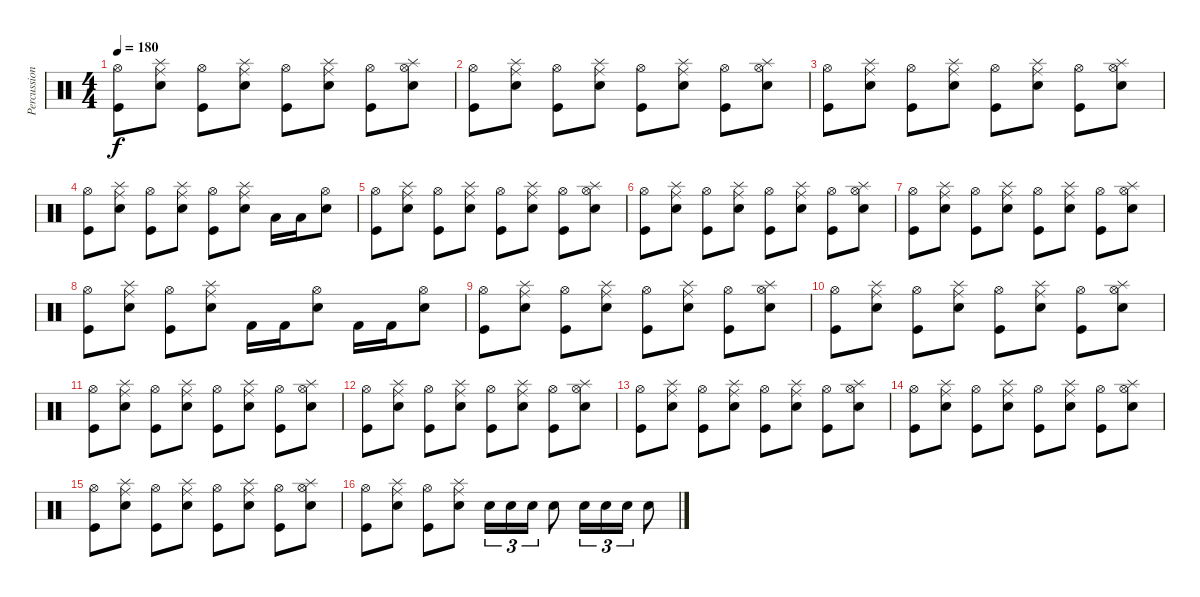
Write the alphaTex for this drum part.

\track ("Percussions" "Percussion") {instrument percussion}
\staff {score}
\articulation defaults
\ts (4 4)
\tempo 180
\clef neutral
\ks c
("Kick (hit)" "Hi-Hat (open)").8{dy f} ("Snare (hit) 2" "Ride (middle)" "Splash (hit)").8 ("Kick (hit)" "Hi-Hat (open)").8 ("Snare (hit) 2" "Ride (middle)" "Splash (hit)").8 ("Kick (hit)" "Hi-Hat (open)").8 ("Snare (hit) 2" "Ride (middle)" "Splash (hit)").8 ("Kick (hit)" "Hi-Hat (open)").8 ("Snare (hit) 2" "Hi-Hat (open)" "Splash (hit)").8 |
("Kick (hit)" "Hi-Hat (open)").8 ("Snare (hit) 2" "Ride (middle)" "Splash (hit)").8 ("Kick (hit)" "Hi-Hat (open)").8 ("Snare (hit) 2" "Ride (middle)" "Splash (hit)").8 ("Kick (hit)" "Hi-Hat (open)").8 ("Snare (hit) 2" "Ride (middle)" "Splash (hit)").8 ("Kick (hit)" "Hi-Hat (open)").8 ("Snare (hit) 2" "Hi-Hat (open)" "Splash (hit)").8 |
("Kick (hit)" "Hi-Hat (open)").8 ("Snare (hit) 2" "Ride (middle)" "Splash (hit)").8 ("Kick (hit)" "Hi-Hat (open)").8 ("Snare (hit) 2" "Ride (middle)" "Splash (hit)").8 ("Kick (hit)" "Hi-Hat (open)").8 ("Snare (hit) 2" "Ride (middle)" "Splash (hit)").8 ("Kick (hit)" "Hi-Hat (open)").8 ("Snare (hit) 2" "Hi-Hat (open)" "Splash (hit)").8 |
("Kick (hit)" "Hi-Hat (open)").8 ("Snare (hit) 2" "Ride (middle)" "Splash (hit)").8 ("Kick (hit)" "Hi-Hat (open)").8 ("Snare (hit) 2" "Ride (middle)" "Splash (hit)").8 ("Kick (hit)" "Hi-Hat (open)").8 ("Snare (hit) 2" "Ride (middle)" "Splash (hit)").8 "Low Tom (hit)".16 "Low Tom (hit)".16 ("Hi-Hat (open)" "Electric Snare (hit)").8 |
("Kick (hit)" "Hi-Hat (open)").8 ("Snare (hit) 2" "Ride (middle)" "Splash (hit)").8 ("Kick (hit)" "Hi-Hat (open)").8 ("Snare (hit) 2" "Ride (middle)" "Splash (hit)").8 ("Kick (hit)" "Hi-Hat (open)").8 ("Snare (hit) 2" "Ride (middle)" "Splash (hit)").8 ("Kick (hit)" "Hi-Hat (open)").8 ("Snare (hit) 2" "Hi-Hat (open)" "Splash (hit)").8 |
("Kick (hit)" "Hi-Hat (open)").8 ("Snare (hit) 2" "Ride (middle)" "Splash (hit)").8 ("Kick (hit)" "Hi-Hat (open)").8 ("Snare (hit) 2" "Ride (middle)" "Splash (hit)").8 ("Kick (hit)" "Hi-Hat (open)").8 ("Snare (hit) 2" "Ride (middle)" "Splash (hit)").8 ("Kick (hit)" "Hi-Hat (open)").8 ("Snare (hit) 2" "Hi-Hat (open)" "Splash (hit)").8 |
("Kick (hit)" "Hi-Hat (open)").8 ("Snare (hit) 2" "Ride (middle)" "Splash (hit)").8 ("Kick (hit)" "Hi-Hat (open)").8 ("Snare (hit) 2" "Ride (middle)" "Splash (hit)").8 ("Kick (hit)" "Hi-Hat (open)").8 ("Snare (hit) 2" "Ride (middle)" "Splash (hit)").8 ("Kick (hit)" "Hi-Hat (open)").8 ("Snare (hit) 2" "Hi-Hat (open)" "Splash (hit)").8 |
("Kick (hit)" "Hi-Hat (open)").8 ("Snare (hit) 2" "Ride (middle)" "Splash (hit)").8 ("Kick (hit)" "Hi-Hat (open)").8 ("Snare (hit) 2" "Ride (middle)" "Splash (hit)").8 "Kick (hit) 2".16 "Kick (hit) 2".16 ("Hi-Hat (open)" "Electric Snare (hit)").8 "Kick (hit) 2".16 "Kick (hit) 2".16 ("Hi-Hat (open)" "Electric Snare (hit)").8 |
("Kick (hit)" "Hi-Hat (open)").8 ("Snare (hit) 2" "Ride (middle)" "Splash (hit)").8 ("Kick (hit)" "Hi-Hat (open)").8 ("Snare (hit) 2" "Ride (middle)" "Splash (hit)").8 ("Kick (hit)" "Hi-Hat (open)").8 ("Snare (hit) 2" "Ride (middle)" "Splash (hit)").8 ("Kick (hit)" "Hi-Hat (open)").8 ("Snare (hit) 2" "Hi-Hat (open)" "Splash (hit)").8 |
("Kick (hit)" "Hi-Hat (open)").8 ("Snare (hit) 2" "Ride (middle)" "Splash (hit)").8 ("Kick (hit)" "Hi-Hat (open)").8 ("Snare (hit) 2" "Ride (middle)" "Splash (hit)").8 ("Kick (hit)" "Hi-Hat (open)").8 ("Snare (hit) 2" "Ride (middle)" "Splash (hit)").8 ("Kick (hit)" "Hi-Hat (open)").8 ("Snare (hit) 2" "Hi-Hat (open)" "Splash (hit)").8 |
("Kick (hit)" "Hi-Hat (open)").8 ("Snare (hit) 2" "Ride (middle)" "Splash (hit)").8 ("Kick (hit)" "Hi-Hat (open)").8 ("Snare (hit) 2" "Ride (middle)" "Splash (hit)").8 ("Kick (hit)" "Hi-Hat (open)").8 ("Snare (hit) 2" "Ride (middle)" "Splash (hit)").8 ("Kick (hit)" "Hi-Hat (open)").8 ("Snare (hit) 2" "Hi-Hat (open)" "Splash (hit)").8 |
("Kick (hit)" "Hi-Hat (open)").8 ("Snare (hit) 2" "Ride (middle)" "Splash (hit)").8 ("Kick (hit)" "Hi-Hat (open)").8 ("Snare (hit) 2" "Ride (middle)" "Splash (hit)").8 ("Kick (hit)" "Hi-Hat (open)").8 ("Snare (hit) 2" "Ride (middle)" "Splash (hit)").8 ("Kick (hit)" "Hi-Hat (open)").8 ("Snare (hit) 2" "Hi-Hat (open)" "Splash (hit)").8 |
("Kick (hit)" "Hi-Hat (open)").8 ("Snare (hit) 2" "Ride (middle)" "Splash (hit)").8 ("Kick (hit)" "Hi-Hat (open)").8 ("Snare (hit) 2" "Ride (middle)" "Splash (hit)").8 ("Kick (hit)" "Hi-Hat (open)").8 ("Snare (hit) 2" "Ride (middle)" "Splash (hit)").8 ("Kick (hit)" "Hi-Hat (open)").8 ("Snare (hit) 2" "Hi-Hat (open)" "Splash (hit)").8 |
("Kick (hit)" "Hi-Hat (open)").8 ("Snare (hit) 2" "Ride (middle)" "Splash (hit)").8 ("Kick (hit)" "Hi-Hat (open)").8 ("Snare (hit) 2" "Ride (middle)" "Splash (hit)").8 ("Kick (hit)" "Hi-Hat (open)").8 ("Snare (hit) 2" "Ride (middle)" "Splash (hit)").8 ("Kick (hit)" "Hi-Hat (open)").8 ("Snare (hit) 2" "Hi-Hat (open)" "Splash (hit)").8 |
("Kick (hit)" "Hi-Hat (open)").8 ("Snare (hit) 2" "Ride (middle)" "Splash (hit)").8 ("Kick (hit)" "Hi-Hat (open)").8 ("Snare (hit) 2" "Ride (middle)" "Splash (hit)").8 ("Kick (hit)" "Hi-Hat (open)").8 ("Snare (hit) 2" "Ride (middle)" "Splash (hit)").8 ("Kick (hit)" "Hi-Hat (open)").8 ("Snare (hit) 2" "Hi-Hat (open)" "Splash (hit)").8 |
("Kick (hit)" "Hi-Hat (open)").8 ("Snare (hit) 2" "Ride (middle)" "Splash (hit)").8 ("Kick (hit)" "Hi-Hat (open)").8 ("Snare (hit) 2" "Ride (middle)" "Splash (hit)").8 "Electric Snare (hit)".16{tu (3 2)} "Electric Snare (hit)".16{tu (3 2)} "Electric Snare (hit)".16{tu (3 2)} "Electric Snare (hit)".8 "Electric Snare (hit)".16{tu (3 2)} "Electric Snare (hit)".16{tu (3 2)} "Electric Snare (hit)".16{tu (3 2)} "Electric Snare (hit)".8
